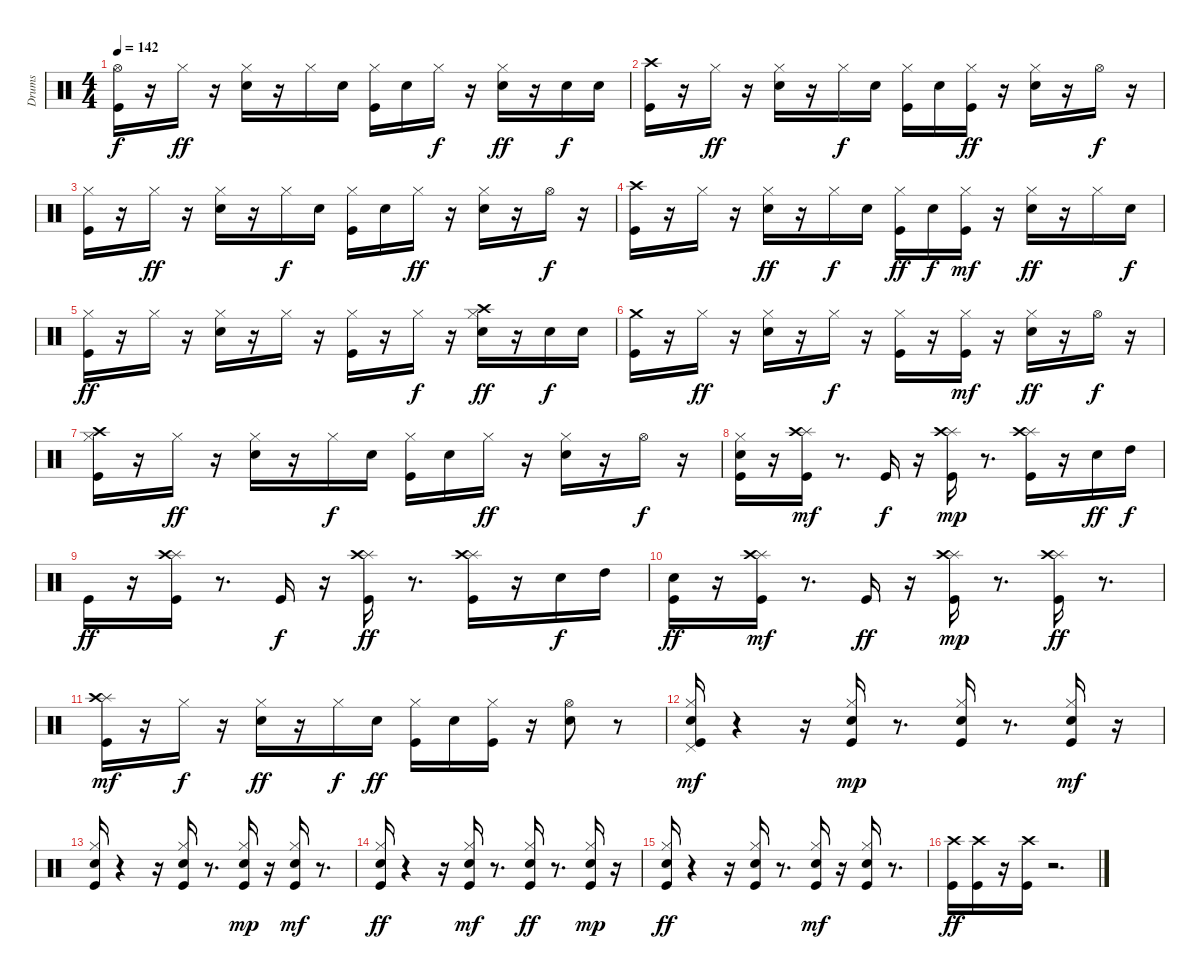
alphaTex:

\track ("Drums" "Drums") {instrument percussion}
\staff {score}
\articulation defaults
\ts (4 4)
\tempo 142
\clef neutral
\ks c
("Hi-Hat (open)" "Kick (hit)").16{dy f} r.16 "Hi-Hat (closed)".16{dy ff} r.16 ("Hi-Hat (closed)" "Electric Snare (hit)").16 r.16 "Hi-Hat (closed)".16 "Electric Snare (hit)".16 ("Kick (hit)" "Hi-Hat (closed)").16 "Electric Snare (hit)".16 "Hi-Hat (closed)".16{dy f} r.16 ("Electric Snare (hit)" "Hi-Hat (closed)").16{dy ff} r.16 "Electric Snare (hit)".16{dy f} "Electric Snare (hit)".16 |
("Kick (hit)" "Crash high (hit)").16 r.16 "Hi-Hat (closed)".16{dy ff} r.16 ("Electric Snare (hit)" "Hi-Hat (closed)").16 r.16 "Hi-Hat (closed)".16{dy f} "Electric Snare (hit)".16 ("Kick (hit)" "Hi-Hat (closed)").16 "Electric Snare (hit)".16 ("Kick (hit)" "Hi-Hat (closed)").16{dy ff} r.16 ("Electric Snare (hit)" "Hi-Hat (closed)").16 r.16 "Hi-Hat (open)".16{dy f} r.16 |
("Kick (hit)" "Hi-Hat (closed)").16 r.16 "Hi-Hat (closed)".16{dy ff} r.16 ("Hi-Hat (closed)" "Electric Snare (hit)").16 r.16 "Hi-Hat (closed)".16{dy f} "Electric Snare (hit)".16 ("Kick (hit)" "Hi-Hat (closed)").16 "Electric Snare (hit)".16 "Hi-Hat (closed)".16{dy ff} r.16 ("Hi-Hat (closed)" "Electric Snare (hit)").16 r.16 "Hi-Hat (open)".16{dy f} r.16 |
("Kick (hit)" "Crash high (hit)").16 r.16 "Hi-Hat (closed)".16 r.16 ("Electric Snare (hit)" "Hi-Hat (closed)").16{dy ff} r.16 "Hi-Hat (closed)".16{dy f} "Electric Snare (hit)".16 ("Kick (hit)" "Hi-Hat (closed)").16{dy ff} "Electric Snare (hit)".16{dy f} ("Kick (hit)" "Hi-Hat (closed)").16{dy mf} r.16 ("Hi-Hat (closed)" "Electric Snare (hit)").16{dy ff} r.16 "Hi-Hat (closed)".16 "Electric Snare (hit)".16{dy f} |
("Kick (hit)" "Hi-Hat (closed)").16{dy ff} r.16 "Hi-Hat (closed)".16 r.16 ("Hi-Hat (closed)" "Electric Snare (hit)").16 r.16 "Hi-Hat (closed)".16 r.16 ("Kick (hit)" "Hi-Hat (closed)").16 r.16 "Hi-Hat (closed)".16{dy f} r.16 ("Electric Snare (hit)" "Hi-Hat (closed)" "Crash high (hit)").16{dy ff} r.16 "Electric Snare (hit)".16{dy f} "Electric Snare (hit)".16 |
("Kick (hit)" "Crash medium (hit)").16 r.16 "Hi-Hat (closed)".16{dy ff} r.16 ("Electric Snare (hit)" "Hi-Hat (closed)").16 r.16 "Hi-Hat (closed)".16{dy f} r.16 ("Kick (hit)" "Hi-Hat (closed)").16 r.16 ("Hi-Hat (closed)" "Kick (hit)").16{dy mf} r.16 ("Hi-Hat (closed)" "Electric Snare (hit)").16{dy ff} r.16 "Hi-Hat (open)".16{dy f} r.16 |
("Crash high (hit)" "Hi-Hat (closed)" "Kick (hit)").16 r.16 "Hi-Hat (closed)".16{dy ff} r.16 ("Hi-Hat (closed)" "Electric Snare (hit)").16 r.16 "Hi-Hat (closed)".16{dy f} "Electric Snare (hit)".16 ("Hi-Hat (closed)" "Kick (hit)").16 "Electric Snare (hit)".16 "Hi-Hat (closed)".16{dy ff} r.16 ("Electric Snare (hit)" "Hi-Hat (closed)").16 r.16 "Hi-Hat (open)".16{dy f} r.16 |
("Kick (hit)" "Electric Snare (hit)" "Hi-Hat (closed)").16 r.16 ("Splash (hit)" "Kick (hit)" "Crash high (hit)").16{dy mf} r.8{d} "Kick (hit)".16{dy f} r.16 ("Splash (hit)" "Crash high (hit)" "Kick (hit)").16{dy mp} r.8{d} ("Splash (hit)" "Kick (hit)" "Crash high (hit)").16 r.16 "Electric Snare (hit)".16{dy ff} "High Tom (hit)".16{dy f} |
"Kick (hit)".16{dy ff} r.16 ("Splash (hit)" "Kick (hit)" "Crash high (hit)").16 r.8{d} "Kick (hit)".16{dy f} r.16 ("Splash (hit)" "Crash high (hit)" "Kick (hit)").16{dy ff} r.8{d} ("Splash (hit)" "Crash high (hit)" "Kick (hit)").16 r.16 "Electric Snare (hit)".16{dy f} "High Tom (hit)".16 |
("Kick (hit)" "Electric Snare (hit)").16{dy ff} r.16 ("Splash (hit)" "Kick (hit)" "Crash high (hit)").16{dy mf} r.8{d} "Kick (hit)".16{dy ff} r.16 ("Splash (hit)" "Kick (hit)" "Crash high (hit)").16{dy mp} r.8{d} ("Splash (hit)" "Crash high (hit)" "Kick (hit)").16{dy ff} r.8{d} |
("Splash (hit)" "Kick (hit)" "Crash high (hit)").16{dy mf} r.16 "Hi-Hat (closed)".16{dy f} r.16 ("Electric Snare (hit)" "Hi-Hat (closed)").16{dy ff} r.16 "Hi-Hat (closed)".16{dy f} "Electric Snare (hit)".16{dy ff} ("Kick (hit)" "Hi-Hat (closed)").16 "Electric Snare (hit)".16 ("Kick (hit)" "Hi-Hat (closed)").16 r.16 ("Electric Snare (hit)" "Hi-Hat (open)").8 r.8 |
("Pedal Hi-Hat (hit)" "Electric Snare (hit)" "Hi-Hat (closed)" "Kick (hit)").16{dy mf} r.4 r.16 ("Hi-Hat (closed)" "Electric Snare (hit)" "Kick (hit)").16{dy mp} r.8{d} ("Electric Snare (hit)" "Kick (hit)" "Hi-Hat (closed)").16 r.8{d} ("Kick (hit)" "Hi-Hat (closed)" "Electric Snare (hit)").16{dy mf} r.16 |
("Electric Snare (hit)" "Kick (hit)" "Hi-Hat (closed)").16 r.4 r.16 ("Hi-Hat (closed)" "Kick (hit)" "Electric Snare (hit)").16 r.8{d} ("Hi-Hat (closed)" "Electric Snare (hit)" "Kick (hit)").16{dy mp} r.16 ("Kick (hit)" "Electric Snare (hit)" "Hi-Hat (closed)").16{dy mf} r.8{d} |
("Hi-Hat (closed)" "Electric Snare (hit)" "Kick (hit)").16{dy ff} r.4 r.16 ("Kick (hit)" "Electric Snare (hit)" "Hi-Hat (closed)").16{dy mf} r.8{d} ("Kick (hit)" "Hi-Hat (closed)" "Electric Snare (hit)").16{dy ff} r.8{d} ("Hi-Hat (closed)" "Kick (hit)" "Electric Snare (hit)").16{dy mp} r.16 |
("Kick (hit)" "Hi-Hat (closed)" "Electric Snare (hit)").16{dy ff} r.4 r.16 ("Electric Snare (hit)" "Kick (hit)" "Hi-Hat (closed)").16 r.8{d} ("Electric Snare (hit)" "Hi-Hat (closed)" "Kick (hit)").16{dy mf} r.16 ("Hi-Hat (closed)" "Kick (hit)" "Electric Snare (hit)").16 r.8{d} |
("Crash high (hit)" "Kick (hit)").16{dy ff} ("Crash high (hit)" "Kick (hit)").16 r.16 ("Kick (hit)" "Crash high (hit)").16 r.2{d}
